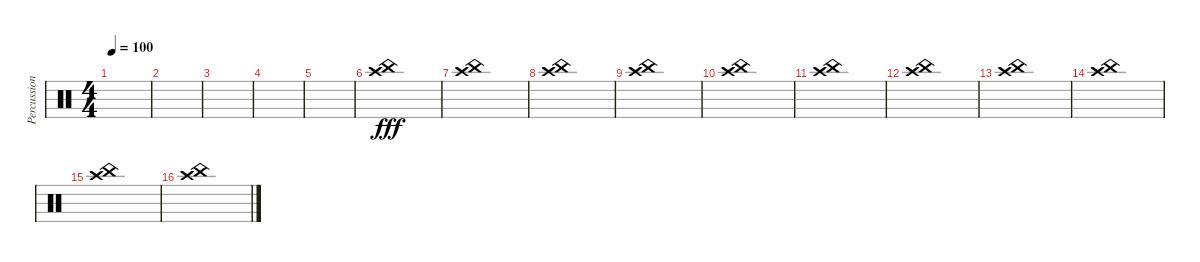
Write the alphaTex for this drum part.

\track ("Percussion" "Percussion") {instrument percussion}
\staff {score}
\articulation defaults
\ts (4 4)
\tempo 100
\clef neutral
\ks c
|
|
|
|
|
("China (hit)" "Crash high (hit)").1{dy fff} |
("China (hit)" "Crash high (hit)").1 |
("China (hit)" "Crash high (hit)").1 |
("China (hit)" "Crash high (hit)").1 |
("China (hit)" "Crash high (hit)").1 |
("China (hit)" "Crash high (hit)").1 |
("China (hit)" "Crash high (hit)").1 |
("China (hit)" "Crash high (hit)").1 |
("China (hit)" "Crash high (hit)").1 |
("China (hit)" "Crash high (hit)").1 |
("China (hit)" "Crash high (hit)").1
